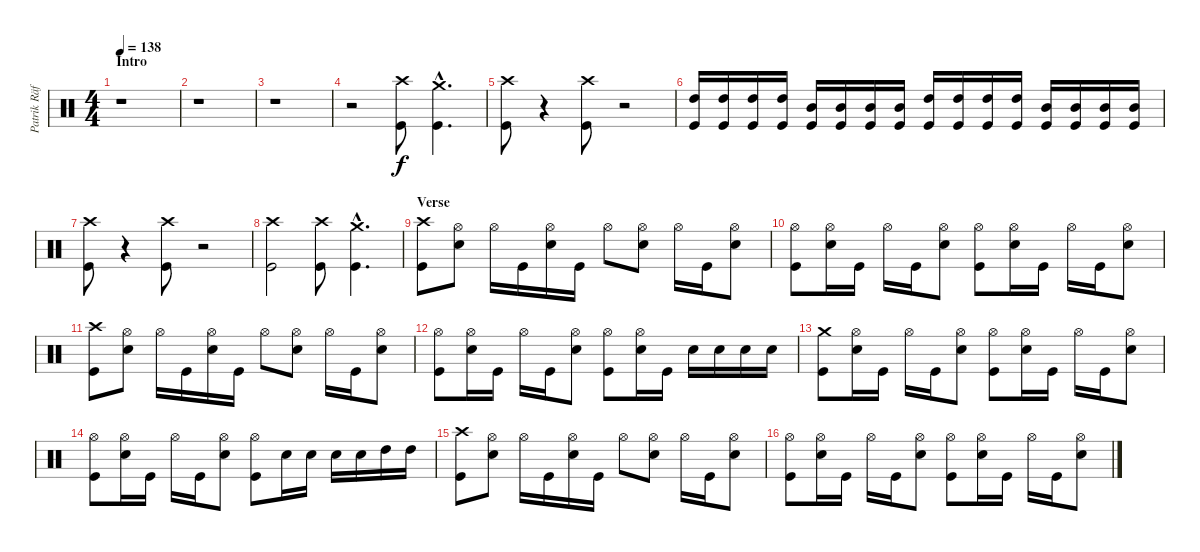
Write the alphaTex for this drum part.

\track ("Patrik Räfling" "Patrik Räf") {instrument percussion}
\staff {score}
\articulation defaults
\ts (4 4)
\section ("" "Intro")
\tempo 138
\clef neutral
\ks c
r.1{dy f} |
r.1 |
r.1 |
r.2 ("Crash high (hit)" "Kick (hit)").8 ("Crash medium (hit)"{hac} "Kick (hit)"{hac}).4{d} |
("Crash high (hit)" "Kick (hit)").8 r.4 ("Crash high (hit)" "Kick (hit)").8 r.2 |
("High Tom (hit)" "Kick (hit)").16 ("High Tom (hit)" "Kick (hit)").16 ("High Tom (hit)" "Kick (hit)").16 ("High Tom (hit)" "Kick (hit)").16 ("Mid Tom (hit)" "Kick (hit)").16 ("Mid Tom (hit)" "Kick (hit)").16 ("Mid Tom (hit)" "Kick (hit)").16 ("Mid Tom (hit)" "Kick (hit)").16 ("High Tom (hit)" "Kick (hit)").16 ("High Tom (hit)" "Kick (hit)").16 ("High Tom (hit)" "Kick (hit)").16 ("High Tom (hit)" "Kick (hit)").16 ("Mid Tom (hit)" "Kick (hit)").16 ("Mid Tom (hit)" "Kick (hit)").16 ("Mid Tom (hit)" "Kick (hit)").16 ("Mid Tom (hit)" "Kick (hit)").16 |
("Crash high (hit)" "Kick (hit)").8 r.4 ("Crash high (hit)" "Kick (hit)").8 r.2 |
("Crash high (hit)" "Kick (hit)").2 ("Crash high (hit)" "Kick (hit)").8 ("Crash medium (hit)"{hac} "Kick (hit)"{hac}).4{d} |
\section ("" "Verse")
("Crash high (hit)" "Kick (hit)").8 ("Hi-Hat (open)" "Snare (hit) 2").8 "Hi-Hat (open)".16 "Kick (hit)".16 ("Hi-Hat (open)" "Snare (hit) 2").16 "Kick (hit)".16 "Hi-Hat (open)".8 ("Hi-Hat (open)" "Snare (hit) 2").8 "Hi-Hat (open)".16 "Kick (hit)".16 ("Hi-Hat (open)" "Snare (hit) 2").8 |
("Hi-Hat (open)" "Kick (hit)").8 ("Hi-Hat (open)" "Snare (hit) 2").16 "Kick (hit)".16 "Hi-Hat (open)".16 "Kick (hit)".16 ("Hi-Hat (open)" "Snare (hit) 2").8 ("Hi-Hat (open)" "Kick (hit)").8 ("Hi-Hat (open)" "Snare (hit) 2").16 "Kick (hit)".16 "Hi-Hat (open)".16 "Kick (hit)".16 ("Hi-Hat (open)" "Snare (hit) 2").8 |
("Crash high (hit)" "Kick (hit)").8 ("Hi-Hat (open)" "Snare (hit) 2").8 "Hi-Hat (open)".16 "Kick (hit)".16 ("Hi-Hat (open)" "Snare (hit) 2").16 "Kick (hit)".16 "Hi-Hat (open)".8 ("Hi-Hat (open)" "Snare (hit) 2").8 "Hi-Hat (open)".16 "Kick (hit)".16 ("Hi-Hat (open)" "Snare (hit) 2").8 |
("Hi-Hat (open)" "Kick (hit)").8 ("Hi-Hat (open)" "Snare (hit) 2").16 "Kick (hit)".16 "Hi-Hat (open)".16 "Kick (hit)".16 ("Hi-Hat (open)" "Snare (hit) 2").8 ("Hi-Hat (open)" "Kick (hit)").8 ("Hi-Hat (open)" "Snare (hit) 2").16 "Kick (hit)".16 "Snare (hit) 2".16 "Snare (hit) 2".16 "Snare (hit) 2".16 "Snare (hit) 2".16 |
("Crash medium (hit)" "Kick (hit)").8 ("Hi-Hat (open)" "Snare (hit) 2").16 "Kick (hit)".16 "Hi-Hat (open)".16 "Kick (hit)".16 ("Hi-Hat (open)" "Snare (hit) 2").8 ("Hi-Hat (open)" "Kick (hit)").8 ("Hi-Hat (open)" "Snare (hit) 2").16 "Kick (hit)".16 "Hi-Hat (open)".16 "Kick (hit)".16 ("Hi-Hat (open)" "Snare (hit) 2").8 |
("Hi-Hat (open)" "Kick (hit)").8 ("Hi-Hat (open)" "Snare (hit) 2").16 "Kick (hit)".16 "Hi-Hat (open)".16 "Kick (hit)".16 ("Hi-Hat (open)" "Snare (hit) 2").8 ("Hi-Hat (open)" "Kick (hit)").8 "Snare (hit) 2".16 "Snare (hit) 2".16 "Snare (hit) 2".16 "Snare (hit) 2".16 "High Tom (hit)".16 "High Tom (hit)".16 |
("Crash high (hit)" "Kick (hit)").8 ("Hi-Hat (open)" "Snare (hit) 2").8 "Hi-Hat (open)".16 "Kick (hit)".16 ("Hi-Hat (open)" "Snare (hit) 2").16 "Kick (hit)".16 "Hi-Hat (open)".8 ("Hi-Hat (open)" "Snare (hit) 2").8 "Hi-Hat (open)".16 "Kick (hit)".16 ("Hi-Hat (open)" "Snare (hit) 2").8 |
("Hi-Hat (open)" "Kick (hit)").8 ("Hi-Hat (open)" "Snare (hit) 2").16 "Kick (hit)".16 "Hi-Hat (open)".16 "Kick (hit)".16 ("Hi-Hat (open)" "Snare (hit) 2").8 ("Hi-Hat (open)" "Kick (hit)").8 ("Hi-Hat (open)" "Snare (hit) 2").16 "Kick (hit)".16 "Hi-Hat (open)".16 "Kick (hit)".16 ("Hi-Hat (open)" "Snare (hit) 2").8
